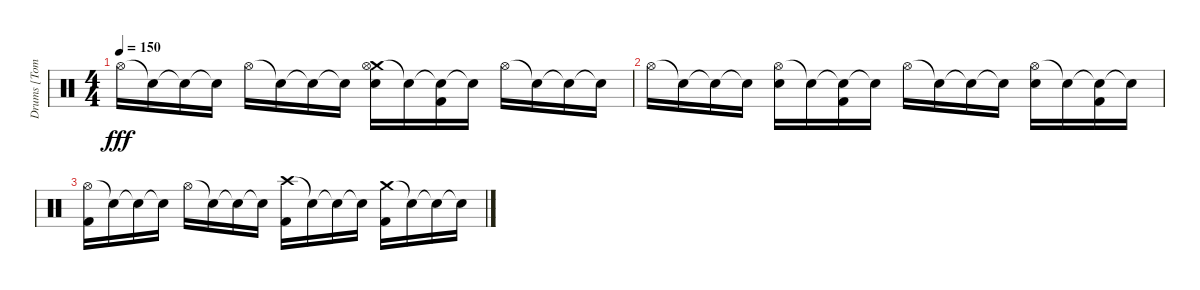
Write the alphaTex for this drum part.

\track ("Drums [Tomas Haake]" "Drums [Tom") {instrument percussion}
\staff {score}
\articulation defaults
\ts (4 4)
\tempo 150
\clef neutral
\ks c "Hi-Hat (open)".16{dy fff} "Snare (hit)"{t}.16 "Snare (hit)"{t}.16 "Snare (hit)"{t}.16 "Hi-Hat (open)".16 "Snare (hit)"{t}.16 "Snare (hit)"{t}.16 "Snare (hit)"{t}.16
("Crash medium (hit)" "Hi-Hat (open)" "Electric Snare (hit)").16 "Snare (hit)"{t}.16 ("Snare (hit)"{t} "Kick (hit) 2").16 "Snare (hit)"{t}.16 "Hi-Hat (open)".16 "Snare (hit)"{t}.16 "Snare (hit)"{t}.16 "Snare (hit)"{t}.16 |
"Hi-Hat (open)".16 "Snare (hit)"{t}.16 "Snare (hit)"{t}.16 "Snare (hit)"{t}.16 ("Hi-Hat (open)" "Electric Snare (hit)").16 "Snare (hit)"{t}.16 ("Snare (hit)"{t} "Kick (hit) 2").16 "Snare (hit)"{t}.16 "Hi-Hat (open)".16 "Snare (hit)"{t}.16 "Snare (hit)"{t}.16 "Snare (hit)"{t}.16 ("Hi-Hat (open)" "Electric Snare (hit)").16 "Snare (hit)"{t}.16 ("Snare (hit)"{t} "Kick (hit) 2").16 "Snare (hit)"{t}.16 |
("Hi-Hat (open)" "Kick (hit) 2").16 "Snare (hit)"{t}.16 "Snare (hit)"{t}.16 "Snare (hit)"{t}.16 "Hi-Hat (open)".16 "Snare (hit)"{t}.16 "Snare (hit)"{t}.16 "Snare (hit)"{t}.16 ("Crash high (hit)" "Kick (hit) 2").16 "Snare (hit)"{t}.16 "Snare (hit)"{t}.16 "Snare (hit)"{t}.16 ("Crash medium (hit)" "Kick (hit) 2").16 "Snare (hit)"{t}.16 "Snare (hit)"{t}.16 "Snare (hit)"{t}.16
